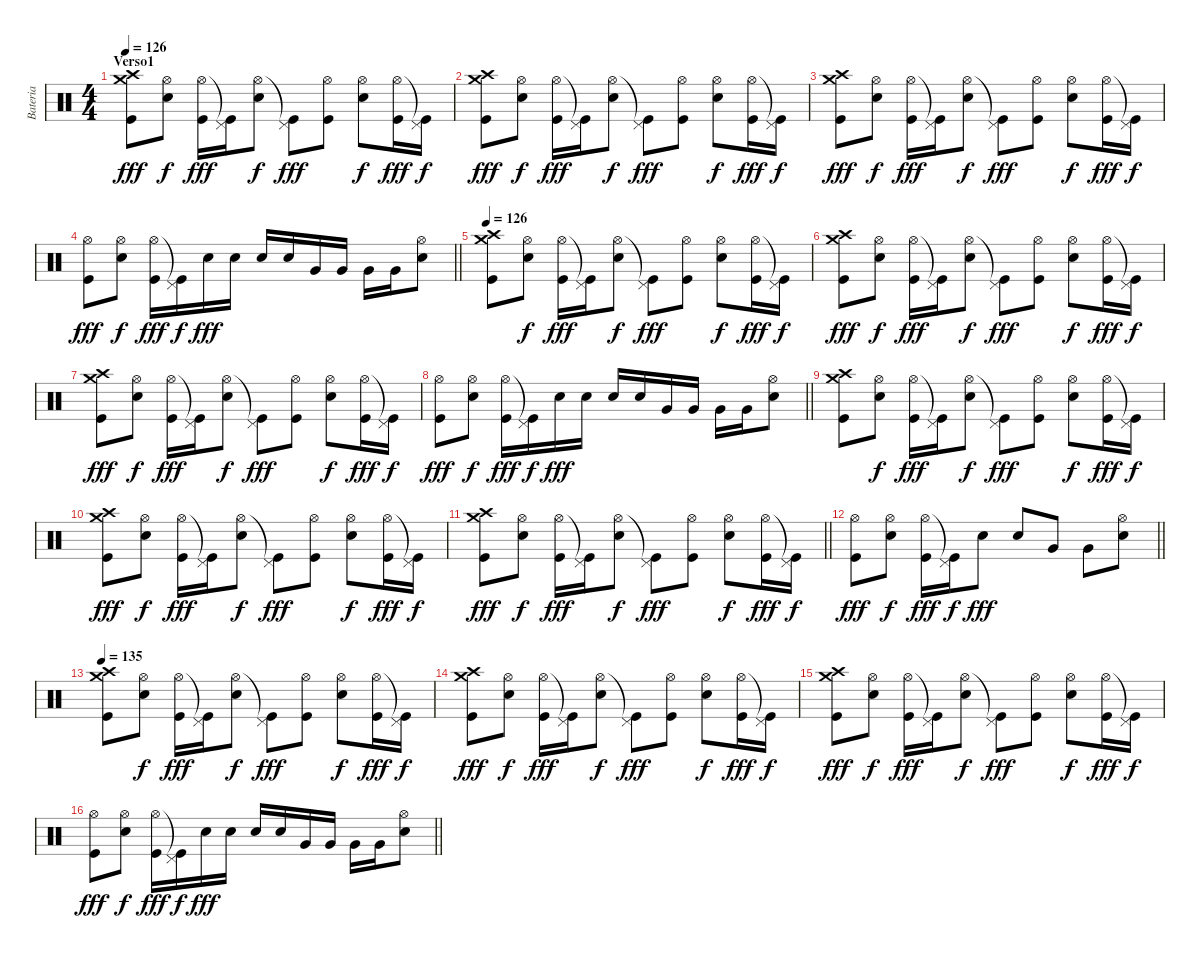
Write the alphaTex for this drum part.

\track ("Bateria" "Bateria") {instrument percussion}
\staff {score}
\articulation defaults
\ts (4 4)
\section ("" "Verso1")
\tempo 126
\clef neutral
\ks c
("Crash high (hit)" "Crash medium (hit)" "Kick (hit)").8{dy fff} ("Hi-Hat (open)" "Electric Snare (hit)").8{dy f} ("Hi-Hat (open)" "Kick (hit)").16{dy fff} ("Pedal Hi-Hat (hit)"{t} "Kick (hit)").16 ("Hi-Hat (open)" "Electric Snare (hit)").8{dy f} ("Pedal Hi-Hat (hit)"{t} "Kick (hit)").8{dy fff} ("Hi-Hat (open)" "Kick (hit)").8 ("Hi-Hat (open)" "Electric Snare (hit)").8{dy f} ("Hi-Hat (open)" "Kick (hit)").16{dy fff} ("Pedal Hi-Hat (hit)"{t} "Kick (hit)").16{dy f} |
("Crash high (hit)" "Crash medium (hit)" "Kick (hit)").8{dy fff} ("Hi-Hat (open)" "Electric Snare (hit)").8{dy f} ("Hi-Hat (open)" "Kick (hit)").16{dy fff} ("Pedal Hi-Hat (hit)"{t} "Kick (hit)").16 ("Hi-Hat (open)" "Electric Snare (hit)").8{dy f} ("Pedal Hi-Hat (hit)"{t} "Kick (hit)").8{dy fff} ("Hi-Hat (open)" "Kick (hit)").8 ("Hi-Hat (open)" "Electric Snare (hit)").8{dy f} ("Hi-Hat (open)" "Kick (hit)").16{dy fff} ("Pedal Hi-Hat (hit)"{t} "Kick (hit)").16{dy f} |
("Crash high (hit)" "Crash medium (hit)" "Kick (hit)").8{dy fff} ("Hi-Hat (open)" "Electric Snare (hit)").8{dy f} ("Hi-Hat (open)" "Kick (hit)").16{dy fff} ("Pedal Hi-Hat (hit)"{t} "Kick (hit)").16 ("Hi-Hat (open)" "Electric Snare (hit)").8{dy f} ("Pedal Hi-Hat (hit)"{t} "Kick (hit)").8{dy fff} ("Hi-Hat (open)" "Kick (hit)").8 ("Hi-Hat (open)" "Electric Snare (hit)").8{dy f} ("Hi-Hat (open)" "Kick (hit)").16{dy fff} ("Pedal Hi-Hat (hit)"{t} "Kick (hit)").16{dy f} |
\barLineRight lightlight
("Hi-Hat (open)" "Kick (hit)").8{dy fff} ("Hi-Hat (open)" "Electric Snare (hit)").8{dy f} ("Hi-Hat (open)" "Kick (hit)").16{dy fff} ("Pedal Hi-Hat (hit)"{t} "Kick (hit)").16{dy f} "Electric Snare (hit)".16{dy fff} "Electric Snare (hit)".16 "Electric Snare (hit)".16 "Electric Snare (hit)".16 "Very Low Tom (hit)".16 "Very Low Tom (hit)".16 "Very Low Tom (hit)".16 "Very Low Tom (hit)".16 ("Hi-Hat (open)" "Electric Snare (hit)").8 |
\tempo 126
("Crash high (hit)" "Crash medium (hit)" "Kick (hit)").8 ("Hi-Hat (open)" "Electric Snare (hit)").8{dy f} ("Hi-Hat (open)" "Kick (hit)").16{dy fff} ("Pedal Hi-Hat (hit)"{t} "Kick (hit)").16 ("Hi-Hat (open)" "Electric Snare (hit)").8{dy f} ("Pedal Hi-Hat (hit)"{t} "Kick (hit)").8{dy fff} ("Hi-Hat (open)" "Kick (hit)").8 ("Hi-Hat (open)" "Electric Snare (hit)").8{dy f} ("Hi-Hat (open)" "Kick (hit)").16{dy fff} ("Pedal Hi-Hat (hit)"{t} "Kick (hit)").16{dy f} |
("Crash high (hit)" "Crash medium (hit)" "Kick (hit)").8{dy fff} ("Hi-Hat (open)" "Electric Snare (hit)").8{dy f} ("Hi-Hat (open)" "Kick (hit)").16{dy fff} ("Pedal Hi-Hat (hit)"{t} "Kick (hit)").16 ("Hi-Hat (open)" "Electric Snare (hit)").8{dy f} ("Pedal Hi-Hat (hit)"{t} "Kick (hit)").8{dy fff} ("Hi-Hat (open)" "Kick (hit)").8 ("Hi-Hat (open)" "Electric Snare (hit)").8{dy f} ("Hi-Hat (open)" "Kick (hit)").16{dy fff} ("Pedal Hi-Hat (hit)"{t} "Kick (hit)").16{dy f} |
("Crash high (hit)" "Crash medium (hit)" "Kick (hit)").8{dy fff} ("Hi-Hat (open)" "Electric Snare (hit)").8{dy f} ("Hi-Hat (open)" "Kick (hit)").16{dy fff} ("Pedal Hi-Hat (hit)"{t} "Kick (hit)").16 ("Hi-Hat (open)" "Electric Snare (hit)").8{dy f} ("Pedal Hi-Hat (hit)"{t} "Kick (hit)").8{dy fff} ("Hi-Hat (open)" "Kick (hit)").8 ("Hi-Hat (open)" "Electric Snare (hit)").8{dy f} ("Hi-Hat (open)" "Kick (hit)").16{dy fff} ("Pedal Hi-Hat (hit)"{t} "Kick (hit)").16{dy f} |
\barLineRight lightlight
("Hi-Hat (open)" "Kick (hit)").8{dy fff} ("Hi-Hat (open)" "Electric Snare (hit)").8{dy f} ("Hi-Hat (open)" "Kick (hit)").16{dy fff} ("Pedal Hi-Hat (hit)"{t} "Kick (hit)").16{dy f} "Electric Snare (hit)".16{dy fff} "Electric Snare (hit)".16 "Electric Snare (hit)".16 "Electric Snare (hit)".16 "Very Low Tom (hit)".16 "Very Low Tom (hit)".16 "Very Low Tom (hit)".16 "Very Low Tom (hit)".16 ("Hi-Hat (open)" "Electric Snare (hit)").8 |
\section ("" "")
("Crash high (hit)" "Crash medium (hit)" "Kick (hit)").8 ("Hi-Hat (open)" "Electric Snare (hit)").8{dy f} ("Hi-Hat (open)" "Kick (hit)").16{dy fff} ("Pedal Hi-Hat (hit)"{t} "Kick (hit)").16 ("Hi-Hat (open)" "Electric Snare (hit)").8{dy f} ("Pedal Hi-Hat (hit)"{t} "Kick (hit)").8{dy fff} ("Hi-Hat (open)" "Kick (hit)").8 ("Hi-Hat (open)" "Electric Snare (hit)").8{dy f} ("Hi-Hat (open)" "Kick (hit)").16{dy fff} ("Pedal Hi-Hat (hit)"{t} "Kick (hit)").16{dy f} |
("Crash high (hit)" "Crash medium (hit)" "Kick (hit)").8{dy fff} ("Hi-Hat (open)" "Electric Snare (hit)").8{dy f} ("Hi-Hat (open)" "Kick (hit)").16{dy fff} ("Pedal Hi-Hat (hit)"{t} "Kick (hit)").16 ("Hi-Hat (open)" "Electric Snare (hit)").8{dy f} ("Pedal Hi-Hat (hit)"{t} "Kick (hit)").8{dy fff} ("Hi-Hat (open)" "Kick (hit)").8 ("Hi-Hat (open)" "Electric Snare (hit)").8{dy f} ("Hi-Hat (open)" "Kick (hit)").16{dy fff} ("Pedal Hi-Hat (hit)"{t} "Kick (hit)").16{dy f} |
\barLineRight lightlight
("Crash high (hit)" "Crash medium (hit)" "Kick (hit)").8{dy fff} ("Hi-Hat (open)" "Electric Snare (hit)").8{dy f} ("Hi-Hat (open)" "Kick (hit)").16{dy fff} ("Pedal Hi-Hat (hit)"{t} "Kick (hit)").16 ("Hi-Hat (open)" "Electric Snare (hit)").8{dy f} ("Pedal Hi-Hat (hit)"{t} "Kick (hit)").8{dy fff} ("Hi-Hat (open)" "Kick (hit)").8 ("Hi-Hat (open)" "Electric Snare (hit)").8{dy f} ("Hi-Hat (open)" "Kick (hit)").16{dy fff} ("Pedal Hi-Hat (hit)"{t} "Kick (hit)").16{dy f} |
\section ("" "")
\barLineRight lightlight
("Hi-Hat (open)" "Kick (hit)").8{dy fff} ("Hi-Hat (open)" "Electric Snare (hit)").8{dy f} ("Hi-Hat (open)" "Kick (hit)").16{dy fff} ("Pedal Hi-Hat (hit)"{t} "Kick (hit)").16{dy f} "Electric Snare (hit)".8{dy fff} "Electric Snare (hit)".8 "Very Low Tom (hit)".8 "Very Low Tom (hit)".8 ("Hi-Hat (open)" "Electric Snare (hit)").8 |
\tempo 135
("Crash high (hit)" "Crash medium (hit)" "Kick (hit)").8 ("Hi-Hat (open)" "Electric Snare (hit)").8{dy f} ("Hi-Hat (open)" "Kick (hit)").16{dy fff} ("Pedal Hi-Hat (hit)"{t} "Kick (hit)").16 ("Hi-Hat (open)" "Electric Snare (hit)").8{dy f} ("Pedal Hi-Hat (hit)"{t} "Kick (hit)").8{dy fff} ("Hi-Hat (open)" "Kick (hit)").8 ("Hi-Hat (open)" "Electric Snare (hit)").8{dy f} ("Hi-Hat (open)" "Kick (hit)").16{dy fff} ("Pedal Hi-Hat (hit)"{t} "Kick (hit)").16{dy f} |
("Crash high (hit)" "Crash medium (hit)" "Kick (hit)").8{dy fff} ("Hi-Hat (open)" "Electric Snare (hit)").8{dy f} ("Hi-Hat (open)" "Kick (hit)").16{dy fff} ("Pedal Hi-Hat (hit)"{t} "Kick (hit)").16 ("Hi-Hat (open)" "Electric Snare (hit)").8{dy f} ("Pedal Hi-Hat (hit)"{t} "Kick (hit)").8{dy fff} ("Hi-Hat (open)" "Kick (hit)").8 ("Hi-Hat (open)" "Electric Snare (hit)").8{dy f} ("Hi-Hat (open)" "Kick (hit)").16{dy fff} ("Pedal Hi-Hat (hit)"{t} "Kick (hit)").16{dy f} |
("Crash high (hit)" "Crash medium (hit)" "Kick (hit)").8{dy fff} ("Hi-Hat (open)" "Electric Snare (hit)").8{dy f} ("Hi-Hat (open)" "Kick (hit)").16{dy fff} ("Pedal Hi-Hat (hit)"{t} "Kick (hit)").16 ("Hi-Hat (open)" "Electric Snare (hit)").8{dy f} ("Pedal Hi-Hat (hit)"{t} "Kick (hit)").8{dy fff} ("Hi-Hat (open)" "Kick (hit)").8 ("Hi-Hat (open)" "Electric Snare (hit)").8{dy f} ("Hi-Hat (open)" "Kick (hit)").16{dy fff} ("Pedal Hi-Hat (hit)"{t} "Kick (hit)").16{dy f} |
\barLineRight lightlight
("Hi-Hat (open)" "Kick (hit)").8{dy fff} ("Hi-Hat (open)" "Electric Snare (hit)").8{dy f} ("Hi-Hat (open)" "Kick (hit)").16{dy fff} ("Pedal Hi-Hat (hit)"{t} "Kick (hit)").16{dy f} "Electric Snare (hit)".16{dy fff} "Electric Snare (hit)".16 "Electric Snare (hit)".16 "Electric Snare (hit)".16 "Very Low Tom (hit)".16 "Very Low Tom (hit)".16 "Very Low Tom (hit)".16 "Very Low Tom (hit)".16 ("Hi-Hat (open)" "Electric Snare (hit)").8
